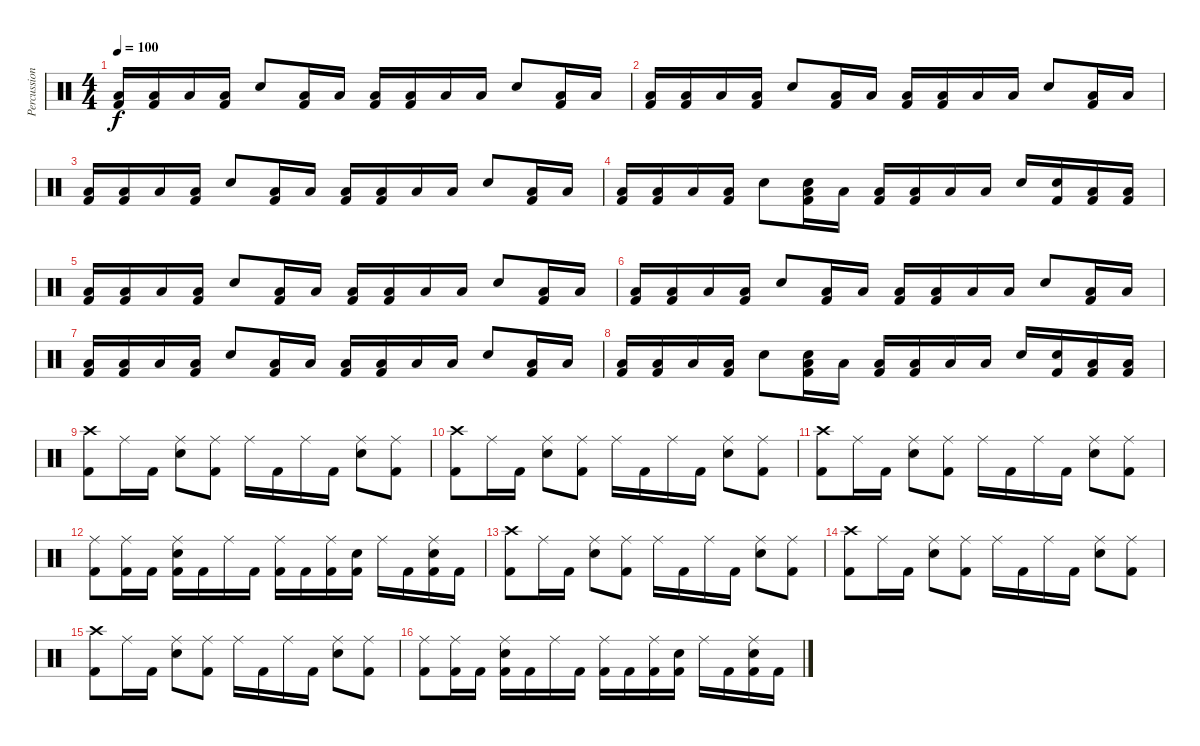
\track ("Percussions" "Percussion") {instrument percussion}
\staff {score}
\articulation defaults
\ts (4 4)
\tempo 100
\clef neutral
\ks c
("Low Floor Tom (hit)" "Kick (hit) 2").16{dy f} ("Low Tom (hit)" "Kick (hit) 2").16 "Low Floor Tom (hit)".16 ("Low Tom (hit)" "Kick (hit) 2").16 "Electric Snare (hit)".8 ("Low Floor Tom (hit)" "Kick (hit) 2").16 "Low Tom (hit)".16 ("Low Floor Tom (hit)" "Kick (hit) 2").16 ("Low Tom (hit)" "Kick (hit) 2").16 "Low Tom (hit)".16 "Low Tom (hit)".16 "Electric Snare (hit)".8 ("Low Floor Tom (hit)" "Kick (hit) 2").16 "Low Floor Tom (hit)".16 |
("Low Floor Tom (hit)" "Kick (hit) 2").16 ("Low Tom (hit)" "Kick (hit) 2").16 "Low Floor Tom (hit)".16 ("Low Tom (hit)" "Kick (hit) 2").16 "Electric Snare (hit)".8 ("Low Floor Tom (hit)" "Kick (hit) 2").16 "Low Tom (hit)".16 ("Low Floor Tom (hit)" "Kick (hit) 2").16 ("Low Tom (hit)" "Kick (hit) 2").16 "Low Tom (hit)".16 "Low Tom (hit)".16 "Electric Snare (hit)".8 ("Low Floor Tom (hit)" "Kick (hit) 2").16 "Low Floor Tom (hit)".16 |
("Low Floor Tom (hit)" "Kick (hit) 2").16 ("Low Tom (hit)" "Kick (hit) 2").16 "Low Floor Tom (hit)".16 ("Low Tom (hit)" "Kick (hit) 2").16 "Electric Snare (hit)".8 ("Low Floor Tom (hit)" "Kick (hit) 2").16 "Low Tom (hit)".16 ("Low Floor Tom (hit)" "Kick (hit) 2").16 ("Low Tom (hit)" "Kick (hit) 2").16 "Low Tom (hit)".16 "Low Tom (hit)".16 "Electric Snare (hit)".8 ("Low Floor Tom (hit)" "Kick (hit) 2").16 "Low Floor Tom (hit)".16 |
("Low Floor Tom (hit)" "Kick (hit) 2").16 ("Low Tom (hit)" "Kick (hit) 2").16 "Low Floor Tom (hit)".16 ("Low Tom (hit)" "Kick (hit) 2").16 "Electric Snare (hit)".8 ("Electric Snare (hit)" "Low Floor Tom (hit)" "Kick (hit) 2").16 "Low Tom (hit)".16 ("Low Floor Tom (hit)" "Kick (hit) 2").16 ("Low Tom (hit)" "Kick (hit) 2").16 "Low Tom (hit)".16 "Low Tom (hit)".16 "Electric Snare (hit)".16 ("Electric Snare (hit)" "Kick (hit) 2").16 ("Low Floor Tom (hit)" "Kick (hit) 2").16 ("Low Floor Tom (hit)" "Kick (hit) 2").16 |
("Low Floor Tom (hit)" "Kick (hit) 2").16 ("Low Tom (hit)" "Kick (hit) 2").16 "Low Floor Tom (hit)".16 ("Low Tom (hit)" "Kick (hit) 2").16 "Electric Snare (hit)".8 ("Low Floor Tom (hit)" "Kick (hit) 2").16 "Low Tom (hit)".16 ("Low Floor Tom (hit)" "Kick (hit) 2").16 ("Low Tom (hit)" "Kick (hit) 2").16 "Low Tom (hit)".16 "Low Tom (hit)".16 "Electric Snare (hit)".8 ("Low Floor Tom (hit)" "Kick (hit) 2").16 "Low Floor Tom (hit)".16 |
("Low Floor Tom (hit)" "Kick (hit) 2").16 ("Low Tom (hit)" "Kick (hit) 2").16 "Low Floor Tom (hit)".16 ("Low Tom (hit)" "Kick (hit) 2").16 "Electric Snare (hit)".8 ("Low Floor Tom (hit)" "Kick (hit) 2").16 "Low Tom (hit)".16 ("Low Floor Tom (hit)" "Kick (hit) 2").16 ("Low Tom (hit)" "Kick (hit) 2").16 "Low Tom (hit)".16 "Low Tom (hit)".16 "Electric Snare (hit)".8 ("Low Floor Tom (hit)" "Kick (hit) 2").16 "Low Floor Tom (hit)".16 |
("Low Floor Tom (hit)" "Kick (hit) 2").16 ("Low Tom (hit)" "Kick (hit) 2").16 "Low Floor Tom (hit)".16 ("Low Tom (hit)" "Kick (hit) 2").16 "Electric Snare (hit)".8 ("Low Floor Tom (hit)" "Kick (hit) 2").16 "Low Tom (hit)".16 ("Low Floor Tom (hit)" "Kick (hit) 2").16 ("Low Tom (hit)" "Kick (hit) 2").16 "Low Tom (hit)".16 "Low Tom (hit)".16 "Electric Snare (hit)".8 ("Low Floor Tom (hit)" "Kick (hit) 2").16 "Low Floor Tom (hit)".16 |
("Low Floor Tom (hit)" "Kick (hit) 2").16 ("Low Tom (hit)" "Kick (hit) 2").16 "Low Floor Tom (hit)".16 ("Low Tom (hit)" "Kick (hit) 2").16 "Electric Snare (hit)".8 ("Electric Snare (hit)" "Low Floor Tom (hit)" "Kick (hit) 2").16 "Low Tom (hit)".16 ("Low Floor Tom (hit)" "Kick (hit) 2").16 ("Low Tom (hit)" "Kick (hit) 2").16 "Low Tom (hit)".16 "Low Tom (hit)".16 "Electric Snare (hit)".16 ("Electric Snare (hit)" "Kick (hit) 2").16 ("Low Floor Tom (hit)" "Kick (hit) 2").16 ("Low Floor Tom (hit)" "Kick (hit) 2").16 |
("Crash high (hit)" "Kick (hit) 2").8 "Ride (middle)".16 "Kick (hit) 2".16 ("Ride (middle)" "Electric Snare (hit)").8 ("Ride (middle)" "Kick (hit) 2").8 "Ride (middle)".16 "Kick (hit) 2".16 "Ride (middle)".16 "Kick (hit) 2".16 ("Ride (middle)" "Electric Snare (hit)").8 ("Ride (middle)" "Kick (hit) 2").8 |
("Crash high (hit)" "Kick (hit) 2").8 "Ride (middle)".16 "Kick (hit) 2".16 ("Ride (middle)" "Electric Snare (hit)").8 ("Ride (middle)" "Kick (hit) 2").8 "Ride (middle)".16 "Kick (hit) 2".16 "Ride (middle)".16 "Kick (hit) 2".16 ("Ride (middle)" "Electric Snare (hit)").8 ("Ride (middle)" "Kick (hit) 2").8 |
("Crash high (hit)" "Kick (hit) 2").8 "Ride (middle)".16 "Kick (hit) 2".16 ("Ride (middle)" "Electric Snare (hit)").8 ("Ride (middle)" "Kick (hit) 2").8 "Ride (middle)".16 "Kick (hit) 2".16 "Ride (middle)".16 "Kick (hit) 2".16 ("Ride (middle)" "Electric Snare (hit)").8 ("Ride (middle)" "Kick (hit) 2").8 |
("Ride (middle)" "Kick (hit) 2").8 ("Ride (middle)" "Kick (hit) 2").16 "Kick (hit) 2".16 ("Ride (middle)" "Electric Snare (hit)" "Kick (hit) 2").16 "Kick (hit) 2".16 "Ride (middle)".16 "Kick (hit) 2".16 ("Ride (middle)" "Kick (hit) 2").16 "Kick (hit) 2".16 ("Ride (middle)" "Kick (hit) 2").16 ("Electric Snare (hit)" "Kick (hit) 2").16 "Ride (middle)".16 "Kick (hit) 2".16 ("Ride (middle)" "Electric Snare (hit)" "Kick (hit) 2").16 "Kick (hit) 2".16 |
("Crash high (hit)" "Kick (hit) 2").8 "Ride (middle)".16 "Kick (hit) 2".16 ("Ride (middle)" "Electric Snare (hit)").8 ("Ride (middle)" "Kick (hit) 2").8 "Ride (middle)".16 "Kick (hit) 2".16 "Ride (middle)".16 "Kick (hit) 2".16 ("Ride (middle)" "Electric Snare (hit)").8 ("Ride (middle)" "Kick (hit) 2").8 |
("Crash high (hit)" "Kick (hit) 2").8 "Ride (middle)".16 "Kick (hit) 2".16 ("Ride (middle)" "Electric Snare (hit)").8 ("Ride (middle)" "Kick (hit) 2").8 "Ride (middle)".16 "Kick (hit) 2".16 "Ride (middle)".16 "Kick (hit) 2".16 ("Ride (middle)" "Electric Snare (hit)").8 ("Ride (middle)" "Kick (hit) 2").8 |
("Crash high (hit)" "Kick (hit) 2").8 "Ride (middle)".16 "Kick (hit) 2".16 ("Ride (middle)" "Electric Snare (hit)").8 ("Ride (middle)" "Kick (hit) 2").8 "Ride (middle)".16 "Kick (hit) 2".16 "Ride (middle)".16 "Kick (hit) 2".16 ("Ride (middle)" "Electric Snare (hit)").8 ("Ride (middle)" "Kick (hit) 2").8 |
("Ride (middle)" "Kick (hit) 2").8 ("Ride (middle)" "Kick (hit) 2").16 "Kick (hit) 2".16 ("Ride (middle)" "Electric Snare (hit)" "Kick (hit) 2").16 "Kick (hit) 2".16 "Ride (middle)".16 "Kick (hit) 2".16 ("Ride (middle)" "Kick (hit) 2").16 "Kick (hit) 2".16 ("Ride (middle)" "Kick (hit) 2").16 ("Electric Snare (hit)" "Kick (hit) 2").16 "Ride (middle)".16 "Kick (hit) 2".16 ("Ride (middle)" "Electric Snare (hit)" "Kick (hit) 2").16 "Kick (hit) 2".16
